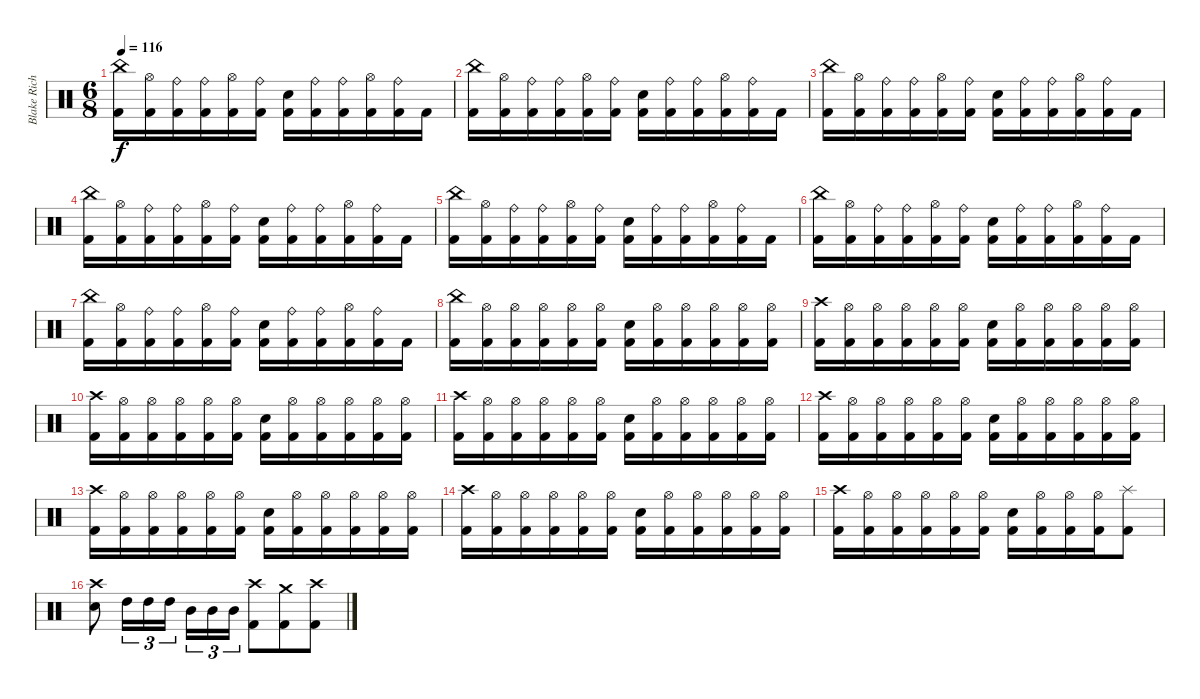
\track ("Blake Richardson" "Blake Rich") {instrument percussion}
\staff {score}
\articulation defaults
\ts (6 8)
\tempo 116
\clef neutral
\ks c
("China (hit)" "Kick (hit) 2").16{dy f} ("Hi-Hat (open)" "Kick (hit) 2").16 ("Ride (bell)" "Kick (hit) 2").16 ("Ride (bell)" "Kick (hit) 2").16 ("Hi-Hat (open)" "Kick (hit) 2").16 ("Ride (bell)" "Kick (hit) 2").16 ("Electric Snare (hit)" "Kick (hit) 2").16 ("Ride (bell)" "Kick (hit) 2").16 ("Ride (bell)" "Kick (hit) 2").16 ("Hi-Hat (open)" "Kick (hit) 2").16 ("Ride (bell)" "Kick (hit) 2").16 "Kick (hit) 2".16 |
("China (hit)" "Kick (hit) 2").16 ("Hi-Hat (open)" "Kick (hit) 2").16 ("Ride (bell)" "Kick (hit) 2").16 ("Ride (bell)" "Kick (hit) 2").16 ("Hi-Hat (open)" "Kick (hit) 2").16 ("Ride (bell)" "Kick (hit) 2").16 ("Electric Snare (hit)" "Kick (hit) 2").16 ("Ride (bell)" "Kick (hit) 2").16 ("Ride (bell)" "Kick (hit) 2").16 ("Hi-Hat (open)" "Kick (hit) 2").16 ("Ride (bell)" "Kick (hit) 2").16 "Kick (hit) 2".16 |
("China (hit)" "Kick (hit) 2").16 ("Hi-Hat (open)" "Kick (hit) 2").16 ("Ride (bell)" "Kick (hit) 2").16 ("Ride (bell)" "Kick (hit) 2").16 ("Hi-Hat (open)" "Kick (hit) 2").16 ("Ride (bell)" "Kick (hit) 2").16 ("Electric Snare (hit)" "Kick (hit) 2").16 ("Ride (bell)" "Kick (hit) 2").16 ("Ride (bell)" "Kick (hit) 2").16 ("Hi-Hat (open)" "Kick (hit) 2").16 ("Ride (bell)" "Kick (hit) 2").16 "Kick (hit) 2".16 |
("China (hit)" "Kick (hit) 2").16 ("Hi-Hat (open)" "Kick (hit) 2").16 ("Ride (bell)" "Kick (hit) 2").16 ("Ride (bell)" "Kick (hit) 2").16 ("Hi-Hat (open)" "Kick (hit) 2").16 ("Ride (bell)" "Kick (hit) 2").16 ("Electric Snare (hit)" "Kick (hit) 2").16 ("Ride (bell)" "Kick (hit) 2").16 ("Ride (bell)" "Kick (hit) 2").16 ("Hi-Hat (open)" "Kick (hit) 2").16 ("Ride (bell)" "Kick (hit) 2").16 "Kick (hit) 2".16 |
("China (hit)" "Kick (hit) 2").16 ("Hi-Hat (open)" "Kick (hit) 2").16 ("Ride (bell)" "Kick (hit) 2").16 ("Ride (bell)" "Kick (hit) 2").16 ("Hi-Hat (open)" "Kick (hit) 2").16 ("Ride (bell)" "Kick (hit) 2").16 ("Electric Snare (hit)" "Kick (hit) 2").16 ("Ride (bell)" "Kick (hit) 2").16 ("Ride (bell)" "Kick (hit) 2").16 ("Hi-Hat (open)" "Kick (hit) 2").16 ("Ride (bell)" "Kick (hit) 2").16 "Kick (hit) 2".16 |
("China (hit)" "Kick (hit) 2").16 ("Hi-Hat (open)" "Kick (hit) 2").16 ("Ride (bell)" "Kick (hit) 2").16 ("Ride (bell)" "Kick (hit) 2").16 ("Hi-Hat (open)" "Kick (hit) 2").16 ("Ride (bell)" "Kick (hit) 2").16 ("Electric Snare (hit)" "Kick (hit) 2").16 ("Ride (bell)" "Kick (hit) 2").16 ("Ride (bell)" "Kick (hit) 2").16 ("Hi-Hat (open)" "Kick (hit) 2").16 ("Ride (bell)" "Kick (hit) 2").16 "Kick (hit) 2".16 |
("China (hit)" "Kick (hit) 2").16 ("Hi-Hat (open)" "Kick (hit) 2").16 ("Ride (bell)" "Kick (hit) 2").16 ("Ride (bell)" "Kick (hit) 2").16 ("Hi-Hat (open)" "Kick (hit) 2").16 ("Ride (bell)" "Kick (hit) 2").16 ("Electric Snare (hit)" "Kick (hit) 2").16 ("Ride (bell)" "Kick (hit) 2").16 ("Ride (bell)" "Kick (hit) 2").16 ("Hi-Hat (open)" "Kick (hit) 2").16 ("Ride (bell)" "Kick (hit) 2").16 "Kick (hit) 2".16 |
("China (hit)" "Kick (hit) 2").16 ("Hi-Hat (open)" "Kick (hit) 2").16 ("Hi-Hat (open)" "Kick (hit) 2").16 ("Hi-Hat (open)" "Kick (hit) 2").16 ("Hi-Hat (open)" "Kick (hit) 2").16 ("Hi-Hat (open)" "Kick (hit) 2").16 ("Electric Snare (hit)" "Kick (hit) 2").16 ("Hi-Hat (open)" "Kick (hit) 2").16 ("Hi-Hat (open)" "Kick (hit) 2").16 ("Hi-Hat (open)" "Kick (hit) 2").16 ("Hi-Hat (open)" "Kick (hit) 2").16 ("Hi-Hat (open)" "Kick (hit) 2").16 |
("Crash high (hit)" "Kick (hit) 2").16 ("Hi-Hat (open)" "Kick (hit) 2").16 ("Hi-Hat (open)" "Kick (hit) 2").16 ("Hi-Hat (open)" "Kick (hit) 2").16 ("Hi-Hat (open)" "Kick (hit) 2").16 ("Hi-Hat (open)" "Kick (hit) 2").16 ("Electric Snare (hit)" "Kick (hit) 2").16 ("Hi-Hat (open)" "Kick (hit) 2").16 ("Hi-Hat (open)" "Kick (hit) 2").16 ("Hi-Hat (open)" "Kick (hit) 2").16 ("Hi-Hat (open)" "Kick (hit) 2").16 ("Hi-Hat (open)" "Kick (hit) 2").16 |
("Crash high (hit)" "Kick (hit) 2").16 ("Hi-Hat (open)" "Kick (hit) 2").16 ("Hi-Hat (open)" "Kick (hit) 2").16 ("Hi-Hat (open)" "Kick (hit) 2").16 ("Hi-Hat (open)" "Kick (hit) 2").16 ("Hi-Hat (open)" "Kick (hit) 2").16 ("Electric Snare (hit)" "Kick (hit) 2").16 ("Hi-Hat (open)" "Kick (hit) 2").16 ("Hi-Hat (open)" "Kick (hit) 2").16 ("Hi-Hat (open)" "Kick (hit) 2").16 ("Hi-Hat (open)" "Kick (hit) 2").16 ("Hi-Hat (open)" "Kick (hit) 2").16 |
("Crash high (hit)" "Kick (hit) 2").16 ("Hi-Hat (open)" "Kick (hit) 2").16 ("Hi-Hat (open)" "Kick (hit) 2").16 ("Hi-Hat (open)" "Kick (hit) 2").16 ("Hi-Hat (open)" "Kick (hit) 2").16 ("Hi-Hat (open)" "Kick (hit) 2").16 ("Electric Snare (hit)" "Kick (hit) 2").16 ("Hi-Hat (open)" "Kick (hit) 2").16 ("Hi-Hat (open)" "Kick (hit) 2").16 ("Hi-Hat (open)" "Kick (hit) 2").16 ("Hi-Hat (open)" "Kick (hit) 2").16 ("Hi-Hat (open)" "Kick (hit) 2").16 |
("Crash high (hit)" "Kick (hit) 2").16 ("Hi-Hat (open)" "Kick (hit) 2").16 ("Hi-Hat (open)" "Kick (hit) 2").16 ("Hi-Hat (open)" "Kick (hit) 2").16 ("Hi-Hat (open)" "Kick (hit) 2").16 ("Hi-Hat (open)" "Kick (hit) 2").16 ("Electric Snare (hit)" "Kick (hit) 2").16 ("Hi-Hat (open)" "Kick (hit) 2").16 ("Hi-Hat (open)" "Kick (hit) 2").16 ("Hi-Hat (open)" "Kick (hit) 2").16 ("Hi-Hat (open)" "Kick (hit) 2").16 ("Hi-Hat (open)" "Kick (hit) 2").16 |
("Crash high (hit)" "Kick (hit) 2").16 ("Hi-Hat (open)" "Kick (hit) 2").16 ("Hi-Hat (open)" "Kick (hit) 2").16 ("Hi-Hat (open)" "Kick (hit) 2").16 ("Hi-Hat (open)" "Kick (hit) 2").16 ("Hi-Hat (open)" "Kick (hit) 2").16 ("Electric Snare (hit)" "Kick (hit) 2").16 ("Hi-Hat (open)" "Kick (hit) 2").16 ("Hi-Hat (open)" "Kick (hit) 2").16 ("Hi-Hat (open)" "Kick (hit) 2").16 ("Hi-Hat (open)" "Kick (hit) 2").16 ("Hi-Hat (open)" "Kick (hit) 2").16 |
("Crash high (hit)" "Kick (hit) 2").16 ("Hi-Hat (open)" "Kick (hit) 2").16 ("Hi-Hat (open)" "Kick (hit) 2").16 ("Hi-Hat (open)" "Kick (hit) 2").16 ("Hi-Hat (open)" "Kick (hit) 2").16 ("Hi-Hat (open)" "Kick (hit) 2").16 ("Electric Snare (hit)" "Kick (hit) 2").16 ("Hi-Hat (open)" "Kick (hit) 2").16 ("Hi-Hat (open)" "Kick (hit) 2").16 ("Hi-Hat (open)" "Kick (hit) 2").16 ("Hi-Hat (open)" "Kick (hit) 2").16 ("Hi-Hat (open)" "Kick (hit) 2").16 |
("Crash high (hit)" "Kick (hit) 2").16 ("Hi-Hat (open)" "Kick (hit) 2").16 ("Hi-Hat (open)" "Kick (hit) 2").16 ("Hi-Hat (open)" "Kick (hit) 2").16 ("Hi-Hat (open)" "Kick (hit) 2").16 ("Hi-Hat (open)" "Kick (hit) 2").16 ("Electric Snare (hit)" "Kick (hit) 2").16 ("Hi-Hat (open)" "Kick (hit) 2").16 ("Hi-Hat (open)" "Kick (hit) 2").16 ("Hi-Hat (open)" "Kick (hit) 2").16 ("Splash (hit)" "Kick (hit) 2").8 |
("Crash high (hit)" "Electric Snare (hit)").8 "High Tom (hit)".16{tu (3 2)} "High Tom (hit)".16{tu (3 2)} "High Tom (hit)".16{tu (3 2) beam splitsecondary} "Mid Tom (hit)".16{tu (3 2)} "Mid Tom (hit)".16{tu (3 2)} "Mid Tom (hit)".16{tu (3 2)} ("Crash high (hit)" "Kick (hit) 2").8 ("Crash medium (hit)" "Kick (hit) 2").8 ("Crash high (hit)" "Kick (hit) 2").8
